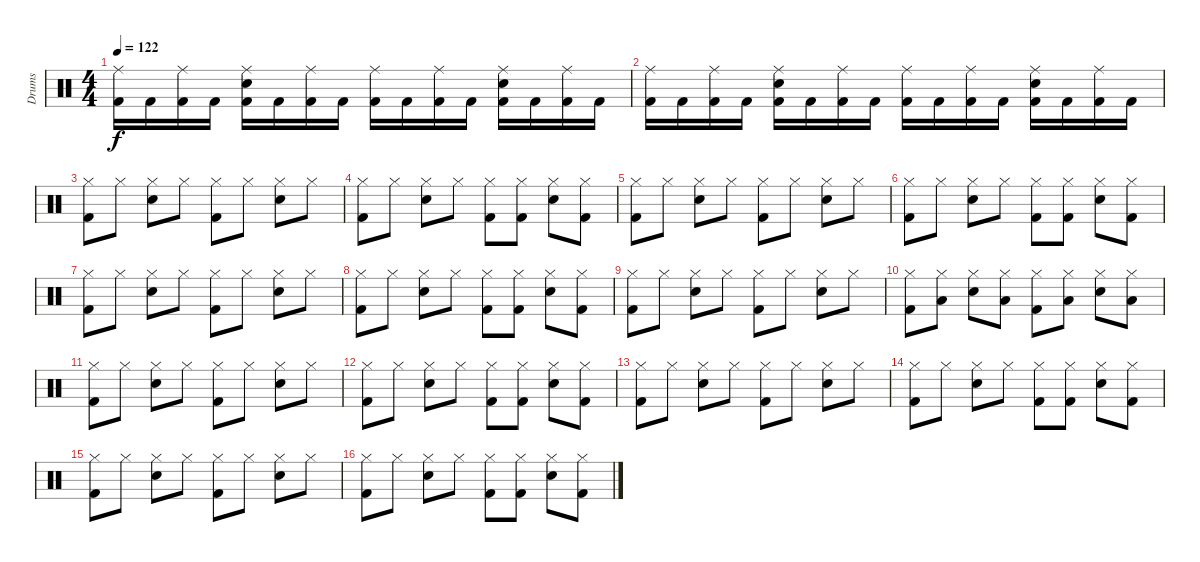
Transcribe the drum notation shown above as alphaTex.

\track ("Drums" "Drums") {instrument percussion}
\staff {score}
\articulation defaults
\ts (4 4)
\tempo 122
\clef neutral
\ks c
("Ride (middle)" "Kick (hit) 2").16{dy f} "Kick (hit) 2".16 ("Ride (middle)" "Kick (hit) 2").16 "Kick (hit) 2".16 ("Ride (middle)" "Electric Snare (hit)" "Kick (hit) 2").16 "Kick (hit) 2".16 ("Ride (middle)" "Kick (hit) 2").16 "Kick (hit) 2".16 ("Ride (middle)" "Kick (hit) 2").16 "Kick (hit) 2".16 ("Ride (middle)" "Kick (hit) 2").16 "Kick (hit) 2".16 ("Ride (middle)" "Electric Snare (hit)" "Kick (hit) 2").16 "Kick (hit) 2".16 ("Ride (middle)" "Kick (hit) 2").16 "Kick (hit) 2".16 |
("Ride (middle)" "Kick (hit) 2").16 "Kick (hit) 2".16 ("Ride (middle)" "Kick (hit) 2").16 "Kick (hit) 2".16 ("Ride (middle)" "Electric Snare (hit)" "Kick (hit) 2").16 "Kick (hit) 2".16 ("Ride (middle)" "Kick (hit) 2").16 "Kick (hit) 2".16 ("Ride (middle)" "Kick (hit) 2").16 "Kick (hit) 2".16 ("Ride (middle)" "Kick (hit) 2").16 "Kick (hit) 2".16 ("Ride (middle)" "Electric Snare (hit)" "Kick (hit) 2").16 "Kick (hit) 2".16 ("Ride (middle)" "Kick (hit) 2").16 "Kick (hit) 2".16 |
("Hi-Hat (closed)" "Kick (hit) 2").8 "Hi-Hat (closed)".8 ("Hi-Hat (closed)" "Electric Snare (hit)").8 "Hi-Hat (closed)".8 ("Hi-Hat (closed)" "Kick (hit) 2").8 "Hi-Hat (closed)".8 ("Hi-Hat (closed)" "Electric Snare (hit)").8 "Hi-Hat (closed)".8 |
("Hi-Hat (closed)" "Kick (hit) 2").8 "Hi-Hat (closed)".8 ("Hi-Hat (closed)" "Electric Snare (hit)").8 "Hi-Hat (closed)".8 ("Hi-Hat (closed)" "Kick (hit) 2").8 ("Hi-Hat (closed)" "Kick (hit) 2").8 ("Hi-Hat (closed)" "Electric Snare (hit)").8 ("Hi-Hat (closed)" "Kick (hit) 2").8 |
("Hi-Hat (closed)" "Kick (hit) 2").8 "Hi-Hat (closed)".8 ("Hi-Hat (closed)" "Electric Snare (hit)").8 "Hi-Hat (closed)".8 ("Hi-Hat (closed)" "Kick (hit) 2").8 "Hi-Hat (closed)".8 ("Hi-Hat (closed)" "Electric Snare (hit)").8 "Hi-Hat (closed)".8 |
("Hi-Hat (closed)" "Kick (hit) 2").8 "Hi-Hat (closed)".8 ("Hi-Hat (closed)" "Electric Snare (hit)").8 "Hi-Hat (closed)".8 ("Hi-Hat (closed)" "Kick (hit) 2").8 ("Hi-Hat (closed)" "Kick (hit) 2").8 ("Hi-Hat (closed)" "Electric Snare (hit)").8 ("Hi-Hat (closed)" "Kick (hit) 2").8 |
("Hi-Hat (closed)" "Kick (hit) 2").8 "Hi-Hat (closed)".8 ("Hi-Hat (closed)" "Electric Snare (hit)").8 "Hi-Hat (closed)".8 ("Hi-Hat (closed)" "Kick (hit) 2").8 "Hi-Hat (closed)".8 ("Hi-Hat (closed)" "Electric Snare (hit)").8 "Hi-Hat (closed)".8 |
("Hi-Hat (closed)" "Kick (hit) 2").8 "Hi-Hat (closed)".8 ("Hi-Hat (closed)" "Electric Snare (hit)").8 "Hi-Hat (closed)".8 ("Hi-Hat (closed)" "Kick (hit) 2").8 ("Hi-Hat (closed)" "Kick (hit) 2").8 ("Hi-Hat (closed)" "Electric Snare (hit)").8 ("Hi-Hat (closed)" "Kick (hit) 2").8 |
("Hi-Hat (closed)" "Kick (hit) 2").8 "Hi-Hat (closed)".8 ("Hi-Hat (closed)" "Electric Snare (hit)").8 "Hi-Hat (closed)".8 ("Hi-Hat (closed)" "Kick (hit) 2").8 "Hi-Hat (closed)".8 ("Hi-Hat (closed)" "Electric Snare (hit)").8 "Hi-Hat (closed)".8 |
("Hi-Hat (closed)" "Kick (hit) 2").8 ("Hi-Hat (closed)" "Low Floor Tom (hit)").8 ("Hi-Hat (closed)" "Electric Snare (hit)").8 ("Hi-Hat (closed)" "Low Floor Tom (hit)").8 ("Hi-Hat (closed)" "Kick (hit) 2").8 ("Hi-Hat (closed)" "Low Floor Tom (hit)").8 ("Hi-Hat (closed)" "Electric Snare (hit)").8 ("Hi-Hat (closed)" "Low Floor Tom (hit)").8 |
("Hi-Hat (closed)" "Kick (hit) 2").8 "Hi-Hat (closed)".8 ("Hi-Hat (closed)" "Electric Snare (hit)").8 "Hi-Hat (closed)".8 ("Hi-Hat (closed)" "Kick (hit) 2").8 "Hi-Hat (closed)".8 ("Hi-Hat (closed)" "Electric Snare (hit)").8 "Hi-Hat (closed)".8 |
("Hi-Hat (closed)" "Kick (hit) 2").8 "Hi-Hat (closed)".8 ("Hi-Hat (closed)" "Electric Snare (hit)").8 "Hi-Hat (closed)".8 ("Hi-Hat (closed)" "Kick (hit) 2").8 ("Hi-Hat (closed)" "Kick (hit) 2").8 ("Hi-Hat (closed)" "Electric Snare (hit)").8 ("Hi-Hat (closed)" "Kick (hit) 2").8 |
("Hi-Hat (closed)" "Kick (hit) 2").8 "Hi-Hat (closed)".8 ("Hi-Hat (closed)" "Electric Snare (hit)").8 "Hi-Hat (closed)".8 ("Hi-Hat (closed)" "Kick (hit) 2").8 "Hi-Hat (closed)".8 ("Hi-Hat (closed)" "Electric Snare (hit)").8 "Hi-Hat (closed)".8 |
("Hi-Hat (closed)" "Kick (hit) 2").8 "Hi-Hat (closed)".8 ("Hi-Hat (closed)" "Electric Snare (hit)").8 "Hi-Hat (closed)".8 ("Hi-Hat (closed)" "Kick (hit) 2").8 ("Hi-Hat (closed)" "Kick (hit) 2").8 ("Hi-Hat (closed)" "Electric Snare (hit)").8 ("Hi-Hat (closed)" "Kick (hit) 2").8 |
("Hi-Hat (closed)" "Kick (hit) 2").8 "Hi-Hat (closed)".8 ("Hi-Hat (closed)" "Electric Snare (hit)").8 "Hi-Hat (closed)".8 ("Hi-Hat (closed)" "Kick (hit) 2").8 "Hi-Hat (closed)".8 ("Hi-Hat (closed)" "Electric Snare (hit)").8 "Hi-Hat (closed)".8 |
("Hi-Hat (closed)" "Kick (hit) 2").8 "Hi-Hat (closed)".8 ("Hi-Hat (closed)" "Electric Snare (hit)").8 "Hi-Hat (closed)".8 ("Hi-Hat (closed)" "Kick (hit) 2").8 ("Hi-Hat (closed)" "Kick (hit) 2").8 ("Hi-Hat (closed)" "Electric Snare (hit)").8 ("Hi-Hat (closed)" "Kick (hit) 2").8
